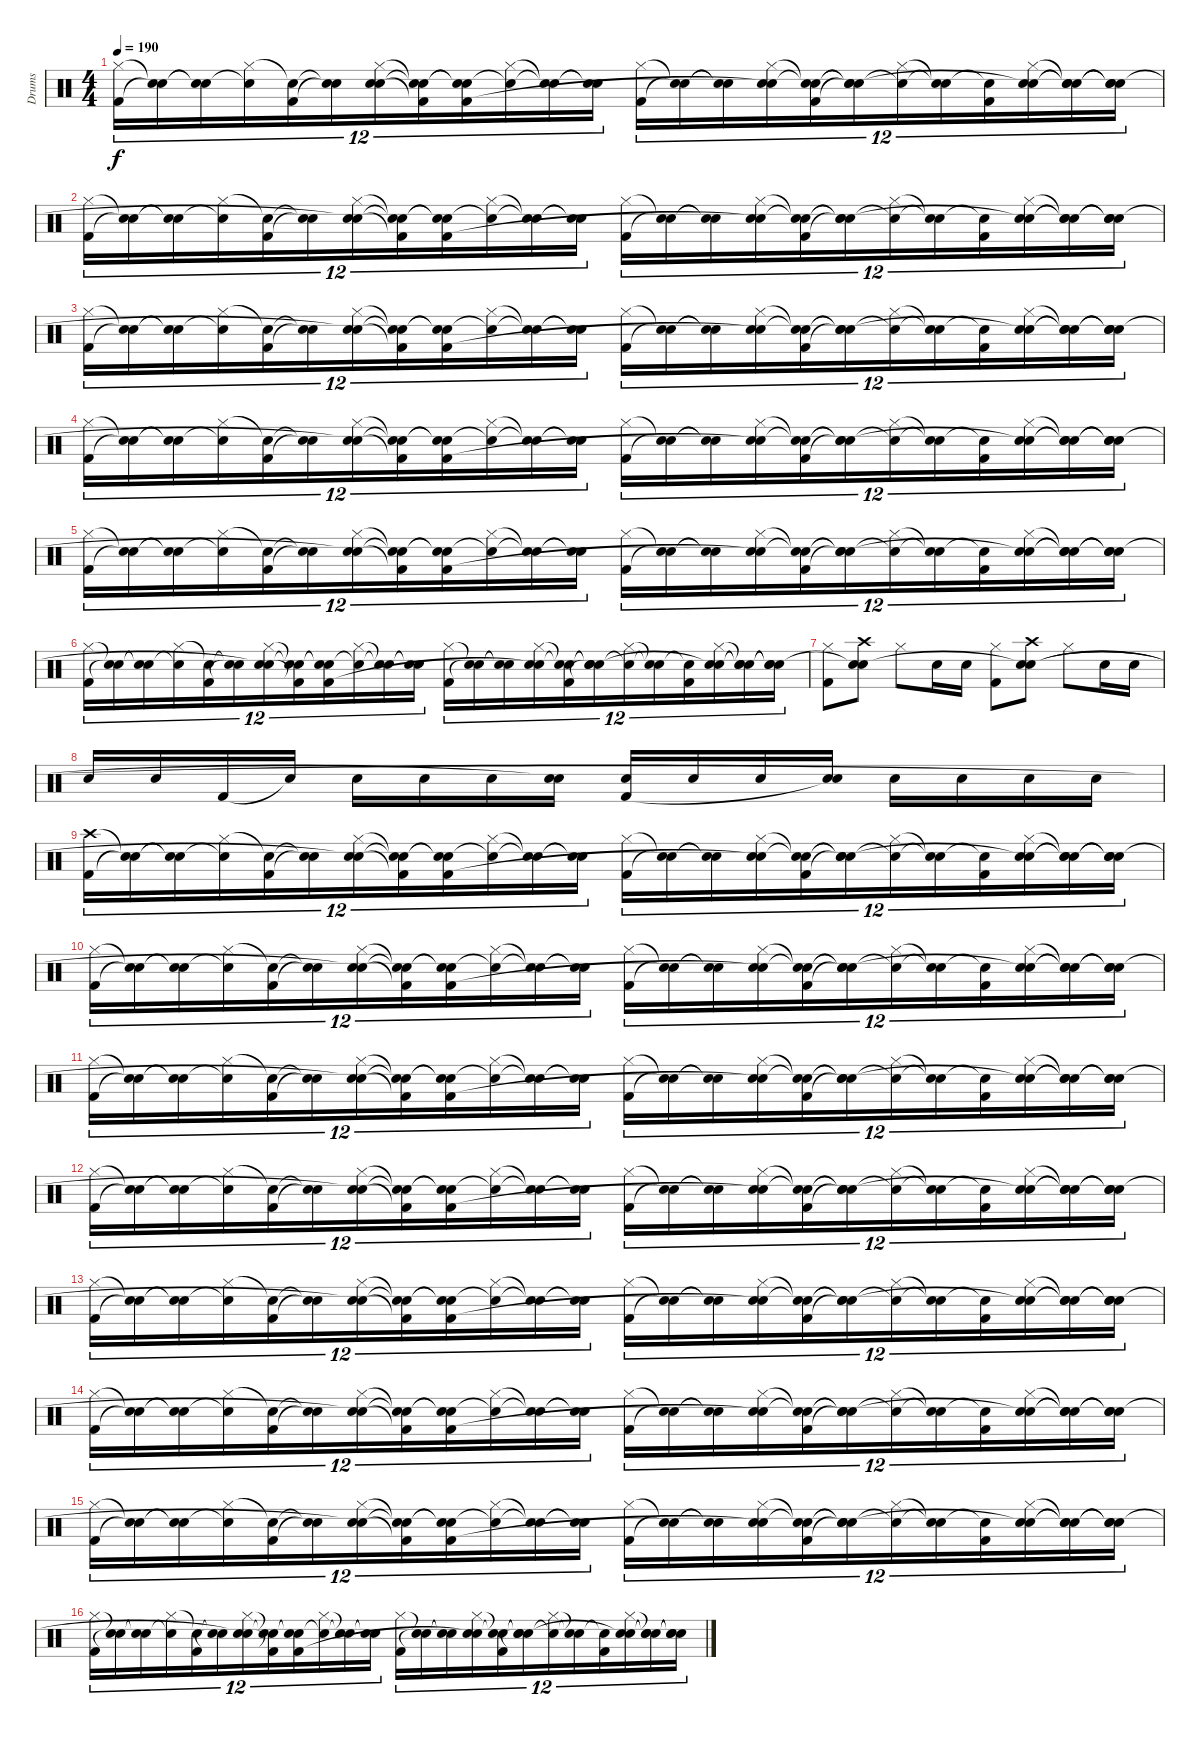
\track ("Drums" "Drums") {instrument percussion}
\staff {score}
\articulation defaults
\ts (4 4)
\tempo 190
\clef neutral
\ks c
("Hi-Hat (closed)" "Kick (hit) 2").16{tu (12 8) dy f} ("Snare (hit)"{t} "Snare (hit)"{t}).16{tu (12 8)} ("Snare (hit)"{t} "Snare (hit)"{t}).16{tu (12 8)} ("Hi-Hat (closed)" "Snare (hit)"{t}).16{tu (12 8)} ("Snare (hit)"{t} "Kick (hit) 2").16{tu (12 8)} ("Snare (hit)"{t} "Snare (hit)"{t}).16{tu (12 8)} ("Hi-Hat (closed)" "Snare (hit) 2" "Snare (hit)"{t}).16{tu (12 8)} ("Snare (hit)"{t} "Snare (hit)"{t} "Kick (hit) 2"{t}).16{tu (12 8)} ("Snare (hit)"{t} "Snare (hit)"{t} "Kick (hit) 2").16{tu (12 8)} ("Hi-Hat (closed)" "Snare (hit)"{t}).16{tu (12 8)} ("Snare (hit)"{t} "Snare (hit)"{t}).16{tu (12 8)} ("Snare (hit)"{t} "Snare (hit)"{t}).16{tu (12 8)} ("Hi-Hat (closed)" "Kick (hit) 2").16{tu (12 8)} ("Snare (hit)"{t} "Snare (hit)"{t}).16{tu (12 8)} ("Snare (hit)"{t} "Snare (hit)"{t}).16{tu (12 8)} ("Hi-Hat (closed)" "Snare (hit) 2" "Snare (hit)"{t}).16{tu (12 8)} ("Snare (hit)"{t} "Snare (hit)"{t} "Kick (hit) 2").16{tu (12 8)} ("Snare (hit)"{t} "Snare (hit)"{t} "Snare (hit)"{t}).16{tu (12 8)} ("Hi-Hat (closed)" "Snare (hit)"{t}).16{tu (12 8)} ("Snare (hit)"{t} "Snare (hit)"{t}).16{tu (12 8)} ("Snare (hit)"{t} "Kick (hit) 2").16{tu (12 8)} ("Hi-Hat (closed)" "Snare (hit) 2" "Snare (hit)"{t}).16{tu (12 8)} ("Snare (hit)"{t} "Snare (hit)"{t} "Snare (hit)"{t}).16{tu (12 8)} ("Snare (hit)"{t} "Snare (hit)"{t} "Snare (hit)"{t}).16{tu (12 8)} |
("Hi-Hat (closed)" "Kick (hit) 2").16{tu (12 8)} ("Snare (hit)"{t} "Snare (hit)"{t}).16{tu (12 8)} ("Snare (hit)"{t} "Snare (hit)"{t}).16{tu (12 8)} ("Hi-Hat (closed)" "Snare (hit)"{t}).16{tu (12 8)} ("Snare (hit)"{t} "Kick (hit) 2").16{tu (12 8)} ("Snare (hit)"{t} "Snare (hit)"{t}).16{tu (12 8)} ("Hi-Hat (closed)" "Snare (hit) 2" "Snare (hit)"{t}).16{tu (12 8)} ("Snare (hit)"{t} "Snare (hit)"{t} "Kick (hit) 2"{t}).16{tu (12 8)} ("Snare (hit)"{t} "Snare (hit)"{t} "Kick (hit) 2").16{tu (12 8)} ("Hi-Hat (closed)" "Snare (hit)"{t}).16{tu (12 8)} ("Snare (hit)"{t} "Snare (hit)"{t}).16{tu (12 8)} ("Snare (hit)"{t} "Snare (hit)"{t}).16{tu (12 8)} ("Hi-Hat (closed)" "Kick (hit) 2").16{tu (12 8)} ("Snare (hit)"{t} "Snare (hit)"{t}).16{tu (12 8)} ("Snare (hit)"{t} "Snare (hit)"{t}).16{tu (12 8)} ("Hi-Hat (closed)" "Snare (hit) 2" "Snare (hit)"{t}).16{tu (12 8)} ("Snare (hit)"{t} "Snare (hit)"{t} "Kick (hit) 2").16{tu (12 8)} ("Snare (hit)"{t} "Snare (hit)"{t} "Snare (hit)"{t}).16{tu (12 8)} ("Hi-Hat (closed)" "Snare (hit)"{t}).16{tu (12 8)} ("Snare (hit)"{t} "Snare (hit)"{t}).16{tu (12 8)} ("Snare (hit)"{t} "Kick (hit) 2").16{tu (12 8)} ("Hi-Hat (closed)" "Snare (hit) 2" "Snare (hit)"{t}).16{tu (12 8)} ("Snare (hit)"{t} "Snare (hit)"{t} "Snare (hit)"{t}).16{tu (12 8)} ("Snare (hit)"{t} "Snare (hit)"{t} "Snare (hit)"{t}).16{tu (12 8)} |
("Hi-Hat (closed)" "Kick (hit) 2").16{tu (12 8)} ("Snare (hit)"{t} "Snare (hit)"{t}).16{tu (12 8)} ("Snare (hit)"{t} "Snare (hit)"{t}).16{tu (12 8)} ("Hi-Hat (closed)" "Snare (hit)"{t}).16{tu (12 8)} ("Snare (hit)"{t} "Kick (hit) 2").16{tu (12 8)} ("Snare (hit)"{t} "Snare (hit)"{t}).16{tu (12 8)} ("Hi-Hat (closed)" "Snare (hit) 2" "Snare (hit)"{t}).16{tu (12 8)} ("Snare (hit)"{t} "Snare (hit)"{t} "Kick (hit) 2"{t}).16{tu (12 8)} ("Snare (hit)"{t} "Snare (hit)"{t} "Kick (hit) 2").16{tu (12 8)} ("Hi-Hat (closed)" "Snare (hit)"{t}).16{tu (12 8)} ("Snare (hit)"{t} "Snare (hit)"{t}).16{tu (12 8)} ("Snare (hit)"{t} "Snare (hit)"{t}).16{tu (12 8)} ("Hi-Hat (closed)" "Kick (hit) 2").16{tu (12 8)} ("Snare (hit)"{t} "Snare (hit)"{t}).16{tu (12 8)} ("Snare (hit)"{t} "Snare (hit)"{t}).16{tu (12 8)} ("Hi-Hat (closed)" "Snare (hit) 2" "Snare (hit)"{t}).16{tu (12 8)} ("Snare (hit)"{t} "Snare (hit)"{t} "Kick (hit) 2").16{tu (12 8)} ("Snare (hit)"{t} "Snare (hit)"{t} "Snare (hit)"{t}).16{tu (12 8)} ("Hi-Hat (closed)" "Snare (hit)"{t}).16{tu (12 8)} ("Snare (hit)"{t} "Snare (hit)"{t}).16{tu (12 8)} ("Snare (hit)"{t} "Kick (hit) 2").16{tu (12 8)} ("Hi-Hat (closed)" "Snare (hit) 2" "Snare (hit)"{t}).16{tu (12 8)} ("Snare (hit)"{t} "Snare (hit)"{t} "Snare (hit)"{t}).16{tu (12 8)} ("Snare (hit)"{t} "Snare (hit)"{t} "Snare (hit)"{t}).16{tu (12 8)} |
("Hi-Hat (closed)" "Kick (hit) 2").16{tu (12 8)} ("Snare (hit)"{t} "Snare (hit)"{t}).16{tu (12 8)} ("Snare (hit)"{t} "Snare (hit)"{t}).16{tu (12 8)} ("Hi-Hat (closed)" "Snare (hit)"{t}).16{tu (12 8)} ("Snare (hit)"{t} "Kick (hit) 2").16{tu (12 8)} ("Snare (hit)"{t} "Snare (hit)"{t}).16{tu (12 8)} ("Hi-Hat (closed)" "Snare (hit) 2" "Snare (hit)"{t}).16{tu (12 8)} ("Snare (hit)"{t} "Snare (hit)"{t} "Kick (hit) 2"{t}).16{tu (12 8)} ("Snare (hit)"{t} "Snare (hit)"{t} "Kick (hit) 2").16{tu (12 8)} ("Hi-Hat (closed)" "Snare (hit)"{t}).16{tu (12 8)} ("Snare (hit)"{t} "Snare (hit)"{t}).16{tu (12 8)} ("Snare (hit)"{t} "Snare (hit)"{t}).16{tu (12 8)} ("Hi-Hat (closed)" "Kick (hit) 2").16{tu (12 8)} ("Snare (hit)"{t} "Snare (hit)"{t}).16{tu (12 8)} ("Snare (hit)"{t} "Snare (hit)"{t}).16{tu (12 8)} ("Hi-Hat (closed)" "Snare (hit) 2" "Snare (hit)"{t}).16{tu (12 8)} ("Snare (hit)"{t} "Snare (hit)"{t} "Kick (hit) 2").16{tu (12 8)} ("Snare (hit)"{t} "Snare (hit)"{t} "Snare (hit)"{t}).16{tu (12 8)} ("Hi-Hat (closed)" "Snare (hit)"{t}).16{tu (12 8)} ("Snare (hit)"{t} "Snare (hit)"{t}).16{tu (12 8)} ("Snare (hit)"{t} "Kick (hit) 2").16{tu (12 8)} ("Hi-Hat (closed)" "Snare (hit) 2" "Snare (hit)"{t}).16{tu (12 8)} ("Snare (hit)"{t} "Snare (hit)"{t} "Snare (hit)"{t}).16{tu (12 8)} ("Snare (hit)"{t} "Snare (hit)"{t} "Snare (hit)"{t}).16{tu (12 8)} |
("Hi-Hat (closed)" "Kick (hit) 2").16{tu (12 8)} ("Snare (hit)"{t} "Snare (hit)"{t}).16{tu (12 8)} ("Snare (hit)"{t} "Snare (hit)"{t}).16{tu (12 8)} ("Hi-Hat (closed)" "Snare (hit)"{t}).16{tu (12 8)} ("Snare (hit)"{t} "Kick (hit) 2").16{tu (12 8)} ("Snare (hit)"{t} "Snare (hit)"{t}).16{tu (12 8)} ("Hi-Hat (closed)" "Snare (hit) 2" "Snare (hit)"{t}).16{tu (12 8)} ("Snare (hit)"{t} "Snare (hit)"{t} "Kick (hit) 2"{t}).16{tu (12 8)} ("Snare (hit)"{t} "Snare (hit)"{t} "Kick (hit) 2").16{tu (12 8)} ("Hi-Hat (closed)" "Snare (hit)"{t}).16{tu (12 8)} ("Snare (hit)"{t} "Snare (hit)"{t}).16{tu (12 8)} ("Snare (hit)"{t} "Snare (hit)"{t}).16{tu (12 8)} ("Hi-Hat (closed)" "Kick (hit) 2").16{tu (12 8)} ("Snare (hit)"{t} "Snare (hit)"{t}).16{tu (12 8)} ("Snare (hit)"{t} "Snare (hit)"{t}).16{tu (12 8)} ("Hi-Hat (closed)" "Snare (hit) 2" "Snare (hit)"{t}).16{tu (12 8)} ("Snare (hit)"{t} "Snare (hit)"{t} "Kick (hit) 2").16{tu (12 8)} ("Snare (hit)"{t} "Snare (hit)"{t} "Snare (hit)"{t}).16{tu (12 8)} ("Hi-Hat (closed)" "Snare (hit)"{t}).16{tu (12 8)} ("Snare (hit)"{t} "Snare (hit)"{t}).16{tu (12 8)} ("Snare (hit)"{t} "Kick (hit) 2").16{tu (12 8)} ("Hi-Hat (closed)" "Snare (hit) 2" "Snare (hit)"{t}).16{tu (12 8)} ("Snare (hit)"{t} "Snare (hit)"{t} "Snare (hit)"{t}).16{tu (12 8)} ("Snare (hit)"{t} "Snare (hit)"{t} "Snare (hit)"{t}).16{tu (12 8)} |
("Hi-Hat (closed)" "Kick (hit) 2").16{tu (12 8)} ("Snare (hit)"{t} "Snare (hit)"{t}).16{tu (12 8)} ("Snare (hit)"{t} "Snare (hit)"{t}).16{tu (12 8)} ("Hi-Hat (closed)" "Snare (hit)"{t}).16{tu (12 8)} ("Snare (hit)"{t} "Kick (hit) 2").16{tu (12 8)} ("Snare (hit)"{t} "Snare (hit)"{t}).16{tu (12 8)} ("Hi-Hat (closed)" "Snare (hit) 2" "Snare (hit)"{t}).16{tu (12 8)} ("Snare (hit)"{t} "Snare (hit)"{t} "Kick (hit) 2"{t}).16{tu (12 8)} ("Snare (hit)"{t} "Snare (hit)"{t} "Kick (hit) 2").16{tu (12 8)} ("Hi-Hat (closed)" "Snare (hit)"{t}).16{tu (12 8)} ("Snare (hit)"{t} "Snare (hit)"{t}).16{tu (12 8)} ("Snare (hit)"{t} "Snare (hit)"{t}).16{tu (12 8)} ("Hi-Hat (closed)" "Kick (hit) 2").16{tu (12 8)} ("Snare (hit)"{t} "Snare (hit)"{t}).16{tu (12 8)} ("Snare (hit)"{t} "Snare (hit)"{t}).16{tu (12 8)} ("Hi-Hat (closed)" "Snare (hit) 2" "Snare (hit)"{t}).16{tu (12 8)} ("Snare (hit)"{t} "Snare (hit)"{t} "Kick (hit) 2").16{tu (12 8)} ("Snare (hit)"{t} "Snare (hit)"{t} "Snare (hit)"{t}).16{tu (12 8)} ("Hi-Hat (closed)" "Snare (hit)"{t}).16{tu (12 8)} ("Snare (hit)"{t} "Snare (hit)"{t}).16{tu (12 8)} ("Snare (hit)"{t} "Kick (hit) 2").16{tu (12 8)} ("Hi-Hat (closed)" "Snare (hit) 2" "Snare (hit)"{t}).16{tu (12 8)} ("Snare (hit)"{t} "Snare (hit)"{t} "Snare (hit)"{t}).16{tu (12 8)} ("Snare (hit)"{t} "Snare (hit)"{t} "Snare (hit)"{t}).16{tu (12 8)} |
("Hi-Hat (closed)" "Kick (hit) 2").8 ("Crash high (hit)" "Snare (hit) 2" "Snare (hit)"{t}).8 "Hi-Hat (closed)".8 "Snare (hit) 2".16 "Snare (hit) 2".16 ("Hi-Hat (closed)" "Kick (hit) 2").8 ("Crash high (hit)" "Snare (hit) 2" "Snare (hit)"{t}).8 "Hi-Hat (closed)".8 "Snare (hit) 2".16 "Snare (hit) 2".16 |
"Snare (hit) 2".16 "Snare (hit) 2".16 "Kick (hit) 2".16 "Snare (hit)"{t}.16 "Snare (hit) 2".16 "Snare (hit) 2".16 "Snare (hit) 2".16 ("Snare (hit) 2" "Snare (hit)"{t}).16 ("Snare (hit) 2" "Kick (hit) 2").16 "Snare (hit) 2".16 "Snare (hit) 2".16 ("Snare (hit) 2" "Snare (hit)"{t}).16 "Snare (hit) 2".16 "Snare (hit) 2".16 "Snare (hit) 2".16 "Snare (hit) 2".16 |
("Crash high (hit)" "Kick (hit) 2").16{tu (12 8)} ("Snare (hit)"{t} "Snare (hit)"{t}).16{tu (12 8)} ("Snare (hit)"{t} "Snare (hit)"{t}).16{tu (12 8)} ("Hi-Hat (closed)" "Snare (hit)"{t}).16{tu (12 8)} ("Snare (hit)"{t} "Kick (hit) 2").16{tu (12 8)} ("Snare (hit)"{t} "Snare (hit)"{t}).16{tu (12 8)} ("Hi-Hat (closed)" "Snare (hit) 2" "Snare (hit)"{t}).16{tu (12 8)} ("Snare (hit)"{t} "Snare (hit)"{t} "Kick (hit) 2"{t}).16{tu (12 8)} ("Snare (hit)"{t} "Snare (hit)"{t} "Kick (hit) 2").16{tu (12 8)} ("Hi-Hat (closed)" "Snare (hit)"{t}).16{tu (12 8)} ("Snare (hit)"{t} "Snare (hit)"{t}).16{tu (12 8)} ("Snare (hit)"{t} "Snare (hit)"{t}).16{tu (12 8)} ("Hi-Hat (closed)" "Kick (hit) 2").16{tu (12 8)} ("Snare (hit)"{t} "Snare (hit)"{t}).16{tu (12 8)} ("Snare (hit)"{t} "Snare (hit)"{t}).16{tu (12 8)} ("Hi-Hat (closed)" "Snare (hit) 2" "Snare (hit)"{t}).16{tu (12 8)} ("Snare (hit)"{t} "Snare (hit)"{t} "Kick (hit) 2").16{tu (12 8)} ("Snare (hit)"{t} "Snare (hit)"{t} "Snare (hit)"{t}).16{tu (12 8)} ("Hi-Hat (closed)" "Snare (hit)"{t}).16{tu (12 8)} ("Snare (hit)"{t} "Snare (hit)"{t}).16{tu (12 8)} ("Snare (hit)"{t} "Kick (hit) 2").16{tu (12 8)} ("Hi-Hat (closed)" "Snare (hit) 2" "Snare (hit)"{t}).16{tu (12 8)} ("Snare (hit)"{t} "Snare (hit)"{t} "Snare (hit)"{t}).16{tu (12 8)} ("Snare (hit)"{t} "Snare (hit)"{t} "Snare (hit)"{t}).16{tu (12 8)} |
("Hi-Hat (closed)" "Kick (hit) 2").16{tu (12 8)} ("Snare (hit)"{t} "Snare (hit)"{t}).16{tu (12 8)} ("Snare (hit)"{t} "Snare (hit)"{t}).16{tu (12 8)} ("Hi-Hat (closed)" "Snare (hit)"{t}).16{tu (12 8)} ("Snare (hit)"{t} "Kick (hit) 2").16{tu (12 8)} ("Snare (hit)"{t} "Snare (hit)"{t}).16{tu (12 8)} ("Hi-Hat (closed)" "Snare (hit) 2" "Snare (hit)"{t}).16{tu (12 8)} ("Snare (hit)"{t} "Snare (hit)"{t} "Kick (hit) 2"{t}).16{tu (12 8)} ("Snare (hit)"{t} "Snare (hit)"{t} "Kick (hit) 2").16{tu (12 8)} ("Hi-Hat (closed)" "Snare (hit)"{t}).16{tu (12 8)} ("Snare (hit)"{t} "Snare (hit)"{t}).16{tu (12 8)} ("Snare (hit)"{t} "Snare (hit)"{t}).16{tu (12 8)} ("Hi-Hat (closed)" "Kick (hit) 2").16{tu (12 8)} ("Snare (hit)"{t} "Snare (hit)"{t}).16{tu (12 8)} ("Snare (hit)"{t} "Snare (hit)"{t}).16{tu (12 8)} ("Hi-Hat (closed)" "Snare (hit) 2" "Snare (hit)"{t}).16{tu (12 8)} ("Snare (hit)"{t} "Snare (hit)"{t} "Kick (hit) 2").16{tu (12 8)} ("Snare (hit)"{t} "Snare (hit)"{t} "Snare (hit)"{t}).16{tu (12 8)} ("Hi-Hat (closed)" "Snare (hit)"{t}).16{tu (12 8)} ("Snare (hit)"{t} "Snare (hit)"{t}).16{tu (12 8)} ("Snare (hit)"{t} "Kick (hit) 2").16{tu (12 8)} ("Hi-Hat (closed)" "Snare (hit) 2" "Snare (hit)"{t}).16{tu (12 8)} ("Snare (hit)"{t} "Snare (hit)"{t} "Snare (hit)"{t}).16{tu (12 8)} ("Snare (hit)"{t} "Snare (hit)"{t} "Snare (hit)"{t}).16{tu (12 8)} |
("Hi-Hat (closed)" "Kick (hit) 2").16{tu (12 8)} ("Snare (hit)"{t} "Snare (hit)"{t}).16{tu (12 8)} ("Snare (hit)"{t} "Snare (hit)"{t}).16{tu (12 8)} ("Hi-Hat (closed)" "Snare (hit)"{t}).16{tu (12 8)} ("Snare (hit)"{t} "Kick (hit) 2").16{tu (12 8)} ("Snare (hit)"{t} "Snare (hit)"{t}).16{tu (12 8)} ("Hi-Hat (closed)" "Snare (hit) 2" "Snare (hit)"{t}).16{tu (12 8)} ("Snare (hit)"{t} "Snare (hit)"{t} "Kick (hit) 2"{t}).16{tu (12 8)} ("Snare (hit)"{t} "Snare (hit)"{t} "Kick (hit) 2").16{tu (12 8)} ("Hi-Hat (closed)" "Snare (hit)"{t}).16{tu (12 8)} ("Snare (hit)"{t} "Snare (hit)"{t}).16{tu (12 8)} ("Snare (hit)"{t} "Snare (hit)"{t}).16{tu (12 8)} ("Hi-Hat (closed)" "Kick (hit) 2").16{tu (12 8)} ("Snare (hit)"{t} "Snare (hit)"{t}).16{tu (12 8)} ("Snare (hit)"{t} "Snare (hit)"{t}).16{tu (12 8)} ("Hi-Hat (closed)" "Snare (hit) 2" "Snare (hit)"{t}).16{tu (12 8)} ("Snare (hit)"{t} "Snare (hit)"{t} "Kick (hit) 2").16{tu (12 8)} ("Snare (hit)"{t} "Snare (hit)"{t} "Snare (hit)"{t}).16{tu (12 8)} ("Hi-Hat (closed)" "Snare (hit)"{t}).16{tu (12 8)} ("Snare (hit)"{t} "Snare (hit)"{t}).16{tu (12 8)} ("Snare (hit)"{t} "Kick (hit) 2").16{tu (12 8)} ("Hi-Hat (closed)" "Snare (hit) 2" "Snare (hit)"{t}).16{tu (12 8)} ("Snare (hit)"{t} "Snare (hit)"{t} "Snare (hit)"{t}).16{tu (12 8)} ("Snare (hit)"{t} "Snare (hit)"{t} "Snare (hit)"{t}).16{tu (12 8)} |
("Hi-Hat (closed)" "Kick (hit) 2").16{tu (12 8)} ("Snare (hit)"{t} "Snare (hit)"{t}).16{tu (12 8)} ("Snare (hit)"{t} "Snare (hit)"{t}).16{tu (12 8)} ("Hi-Hat (closed)" "Snare (hit)"{t}).16{tu (12 8)} ("Snare (hit)"{t} "Kick (hit) 2").16{tu (12 8)} ("Snare (hit)"{t} "Snare (hit)"{t}).16{tu (12 8)} ("Hi-Hat (closed)" "Snare (hit) 2" "Snare (hit)"{t}).16{tu (12 8)} ("Snare (hit)"{t} "Snare (hit)"{t} "Kick (hit) 2"{t}).16{tu (12 8)} ("Snare (hit)"{t} "Snare (hit)"{t} "Kick (hit) 2").16{tu (12 8)} ("Hi-Hat (closed)" "Snare (hit)"{t}).16{tu (12 8)} ("Snare (hit)"{t} "Snare (hit)"{t}).16{tu (12 8)} ("Snare (hit)"{t} "Snare (hit)"{t}).16{tu (12 8)} ("Hi-Hat (closed)" "Kick (hit) 2").16{tu (12 8)} ("Snare (hit)"{t} "Snare (hit)"{t}).16{tu (12 8)} ("Snare (hit)"{t} "Snare (hit)"{t}).16{tu (12 8)} ("Hi-Hat (closed)" "Snare (hit) 2" "Snare (hit)"{t}).16{tu (12 8)} ("Snare (hit)"{t} "Snare (hit)"{t} "Kick (hit) 2").16{tu (12 8)} ("Snare (hit)"{t} "Snare (hit)"{t} "Snare (hit)"{t}).16{tu (12 8)} ("Hi-Hat (closed)" "Snare (hit)"{t}).16{tu (12 8)} ("Snare (hit)"{t} "Snare (hit)"{t}).16{tu (12 8)} ("Snare (hit)"{t} "Kick (hit) 2").16{tu (12 8)} ("Hi-Hat (closed)" "Snare (hit) 2" "Snare (hit)"{t}).16{tu (12 8)} ("Snare (hit)"{t} "Snare (hit)"{t} "Snare (hit)"{t}).16{tu (12 8)} ("Snare (hit)"{t} "Snare (hit)"{t} "Snare (hit)"{t}).16{tu (12 8)} |
("Hi-Hat (closed)" "Kick (hit) 2").16{tu (12 8)} ("Snare (hit)"{t} "Snare (hit)"{t}).16{tu (12 8)} ("Snare (hit)"{t} "Snare (hit)"{t}).16{tu (12 8)} ("Hi-Hat (closed)" "Snare (hit)"{t}).16{tu (12 8)} ("Snare (hit)"{t} "Kick (hit) 2").16{tu (12 8)} ("Snare (hit)"{t} "Snare (hit)"{t}).16{tu (12 8)} ("Hi-Hat (closed)" "Snare (hit) 2" "Snare (hit)"{t}).16{tu (12 8)} ("Snare (hit)"{t} "Snare (hit)"{t} "Kick (hit) 2"{t}).16{tu (12 8)} ("Snare (hit)"{t} "Snare (hit)"{t} "Kick (hit) 2").16{tu (12 8)} ("Hi-Hat (closed)" "Snare (hit)"{t}).16{tu (12 8)} ("Snare (hit)"{t} "Snare (hit)"{t}).16{tu (12 8)} ("Snare (hit)"{t} "Snare (hit)"{t}).16{tu (12 8)} ("Hi-Hat (closed)" "Kick (hit) 2").16{tu (12 8)} ("Snare (hit)"{t} "Snare (hit)"{t}).16{tu (12 8)} ("Snare (hit)"{t} "Snare (hit)"{t}).16{tu (12 8)} ("Hi-Hat (closed)" "Snare (hit) 2" "Snare (hit)"{t}).16{tu (12 8)} ("Snare (hit)"{t} "Snare (hit)"{t} "Kick (hit) 2").16{tu (12 8)} ("Snare (hit)"{t} "Snare (hit)"{t} "Snare (hit)"{t}).16{tu (12 8)} ("Hi-Hat (closed)" "Snare (hit)"{t}).16{tu (12 8)} ("Snare (hit)"{t} "Snare (hit)"{t}).16{tu (12 8)} ("Snare (hit)"{t} "Kick (hit) 2").16{tu (12 8)} ("Hi-Hat (closed)" "Snare (hit) 2" "Snare (hit)"{t}).16{tu (12 8)} ("Snare (hit)"{t} "Snare (hit)"{t} "Snare (hit)"{t}).16{tu (12 8)} ("Snare (hit)"{t} "Snare (hit)"{t} "Snare (hit)"{t}).16{tu (12 8)} |
("Hi-Hat (closed)" "Kick (hit) 2").16{tu (12 8)} ("Snare (hit)"{t} "Snare (hit)"{t}).16{tu (12 8)} ("Snare (hit)"{t} "Snare (hit)"{t}).16{tu (12 8)} ("Hi-Hat (closed)" "Snare (hit)"{t}).16{tu (12 8)} ("Snare (hit)"{t} "Kick (hit) 2").16{tu (12 8)} ("Snare (hit)"{t} "Snare (hit)"{t}).16{tu (12 8)} ("Hi-Hat (closed)" "Snare (hit) 2" "Snare (hit)"{t}).16{tu (12 8)} ("Snare (hit)"{t} "Snare (hit)"{t} "Kick (hit) 2"{t}).16{tu (12 8)} ("Snare (hit)"{t} "Snare (hit)"{t} "Kick (hit) 2").16{tu (12 8)} ("Hi-Hat (closed)" "Snare (hit)"{t}).16{tu (12 8)} ("Snare (hit)"{t} "Snare (hit)"{t}).16{tu (12 8)} ("Snare (hit)"{t} "Snare (hit)"{t}).16{tu (12 8)} ("Hi-Hat (closed)" "Kick (hit) 2").16{tu (12 8)} ("Snare (hit)"{t} "Snare (hit)"{t}).16{tu (12 8)} ("Snare (hit)"{t} "Snare (hit)"{t}).16{tu (12 8)} ("Hi-Hat (closed)" "Snare (hit) 2" "Snare (hit)"{t}).16{tu (12 8)} ("Snare (hit)"{t} "Snare (hit)"{t} "Kick (hit) 2").16{tu (12 8)} ("Snare (hit)"{t} "Snare (hit)"{t} "Snare (hit)"{t}).16{tu (12 8)} ("Hi-Hat (closed)" "Snare (hit)"{t}).16{tu (12 8)} ("Snare (hit)"{t} "Snare (hit)"{t}).16{tu (12 8)} ("Snare (hit)"{t} "Kick (hit) 2").16{tu (12 8)} ("Hi-Hat (closed)" "Snare (hit) 2" "Snare (hit)"{t}).16{tu (12 8)} ("Snare (hit)"{t} "Snare (hit)"{t} "Snare (hit)"{t}).16{tu (12 8)} ("Snare (hit)"{t} "Snare (hit)"{t} "Snare (hit)"{t}).16{tu (12 8)} |
("Hi-Hat (closed)" "Kick (hit) 2").16{tu (12 8)} ("Snare (hit)"{t} "Snare (hit)"{t}).16{tu (12 8)} ("Snare (hit)"{t} "Snare (hit)"{t}).16{tu (12 8)} ("Hi-Hat (closed)" "Snare (hit)"{t}).16{tu (12 8)} ("Snare (hit)"{t} "Kick (hit) 2").16{tu (12 8)} ("Snare (hit)"{t} "Snare (hit)"{t}).16{tu (12 8)} ("Hi-Hat (closed)" "Snare (hit) 2" "Snare (hit)"{t}).16{tu (12 8)} ("Snare (hit)"{t} "Snare (hit)"{t} "Kick (hit) 2"{t}).16{tu (12 8)} ("Snare (hit)"{t} "Snare (hit)"{t} "Kick (hit) 2").16{tu (12 8)} ("Hi-Hat (closed)" "Snare (hit)"{t}).16{tu (12 8)} ("Snare (hit)"{t} "Snare (hit)"{t}).16{tu (12 8)} ("Snare (hit)"{t} "Snare (hit)"{t}).16{tu (12 8)} ("Hi-Hat (closed)" "Kick (hit) 2").16{tu (12 8)} ("Snare (hit)"{t} "Snare (hit)"{t}).16{tu (12 8)} ("Snare (hit)"{t} "Snare (hit)"{t}).16{tu (12 8)} ("Hi-Hat (closed)" "Snare (hit) 2" "Snare (hit)"{t}).16{tu (12 8)} ("Snare (hit)"{t} "Snare (hit)"{t} "Kick (hit) 2").16{tu (12 8)} ("Snare (hit)"{t} "Snare (hit)"{t} "Snare (hit)"{t}).16{tu (12 8)} ("Hi-Hat (closed)" "Snare (hit)"{t}).16{tu (12 8)} ("Snare (hit)"{t} "Snare (hit)"{t}).16{tu (12 8)} ("Snare (hit)"{t} "Kick (hit) 2").16{tu (12 8)} ("Hi-Hat (closed)" "Snare (hit) 2" "Snare (hit)"{t}).16{tu (12 8)} ("Snare (hit)"{t} "Snare (hit)"{t} "Snare (hit)"{t}).16{tu (12 8)} ("Snare (hit)"{t} "Snare (hit)"{t} "Snare (hit)"{t}).16{tu (12 8)} |
("Hi-Hat (closed)" "Kick (hit) 2").16{tu (12 8)} ("Snare (hit)"{t} "Snare (hit)"{t}).16{tu (12 8)} ("Snare (hit)"{t} "Snare (hit)"{t}).16{tu (12 8)} ("Hi-Hat (closed)" "Snare (hit)"{t}).16{tu (12 8)} ("Snare (hit)"{t} "Kick (hit) 2").16{tu (12 8)} ("Snare (hit)"{t} "Snare (hit)"{t}).16{tu (12 8)} ("Hi-Hat (closed)" "Snare (hit) 2" "Snare (hit)"{t}).16{tu (12 8)} ("Snare (hit)"{t} "Snare (hit)"{t} "Kick (hit) 2"{t}).16{tu (12 8)} ("Snare (hit)"{t} "Snare (hit)"{t} "Kick (hit) 2").16{tu (12 8)} ("Hi-Hat (closed)" "Snare (hit)"{t}).16{tu (12 8)} ("Snare (hit)"{t} "Snare (hit)"{t}).16{tu (12 8)} ("Snare (hit)"{t} "Snare (hit)"{t}).16{tu (12 8)} ("Hi-Hat (closed)" "Kick (hit) 2").16{tu (12 8)} ("Snare (hit)"{t} "Snare (hit)"{t}).16{tu (12 8)} ("Snare (hit)"{t} "Snare (hit)"{t}).16{tu (12 8)} ("Hi-Hat (closed)" "Snare (hit) 2" "Snare (hit)"{t}).16{tu (12 8)} ("Snare (hit)"{t} "Snare (hit)"{t} "Kick (hit) 2").16{tu (12 8)} ("Snare (hit)"{t} "Snare (hit)"{t} "Snare (hit)"{t}).16{tu (12 8)} ("Hi-Hat (closed)" "Snare (hit)"{t}).16{tu (12 8)} ("Snare (hit)"{t} "Snare (hit)"{t}).16{tu (12 8)} ("Snare (hit)"{t} "Kick (hit) 2").16{tu (12 8)} ("Hi-Hat (closed)" "Snare (hit) 2" "Snare (hit)"{t}).16{tu (12 8)} ("Snare (hit)"{t} "Snare (hit)"{t} "Snare (hit)"{t}).16{tu (12 8)} ("Snare (hit)"{t} "Snare (hit)"{t} "Snare (hit)"{t}).16{tu (12 8)}
